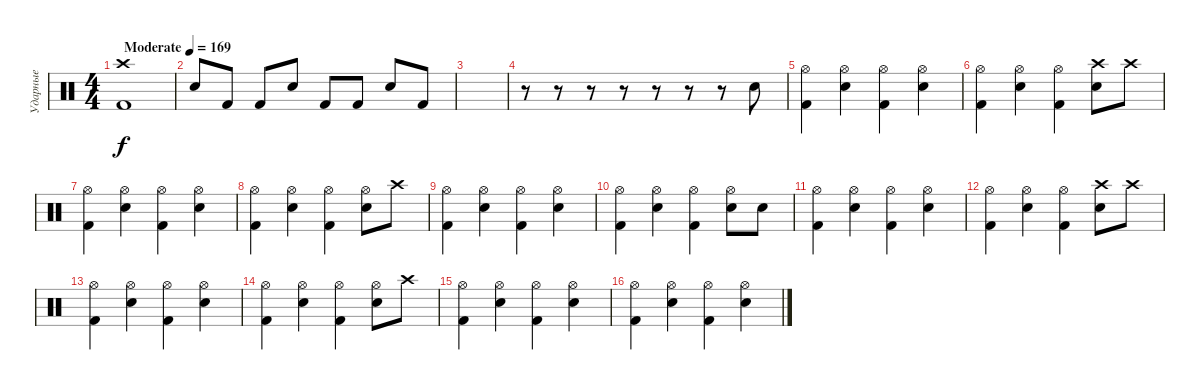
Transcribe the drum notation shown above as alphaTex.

\track ("Ударные" "Ударные") {instrument percussion}
\staff {score}
\articulation defaults
\ts (4 4)
\tempo (169 "Moderate")
\clef neutral
\ks c
("Kick (hit) 2" "Crash high (hit)").1{dy f} |
"Electric Snare (hit)".8 "Kick (hit) 2".8 "Kick (hit) 2".8 "Electric Snare (hit)".8 "Kick (hit) 2".8 "Kick (hit) 2".8 "Electric Snare (hit)".8 "Kick (hit) 2".8 |
|
r.8 r.8 r.8 r.8 r.8 r.8 r.8 "Electric Snare (hit)".8 |
("Kick (hit) 2" "Hi-Hat (open)").4 ("Electric Snare (hit)" "Hi-Hat (open)").4 ("Kick (hit) 2" "Hi-Hat (open)").4 ("Electric Snare (hit)" "Hi-Hat (open)").4 |
("Kick (hit) 2" "Hi-Hat (open)").4 ("Electric Snare (hit)" "Hi-Hat (open)").4 ("Kick (hit) 2" "Hi-Hat (open)").4 ("Electric Snare (hit)" "Crash high (hit)").8 "Crash high (hit)".8 |
("Kick (hit) 2" "Hi-Hat (open)").4 ("Electric Snare (hit)" "Hi-Hat (open)").4 ("Kick (hit) 2" "Hi-Hat (open)").4 ("Electric Snare (hit)" "Hi-Hat (open)").4 |
("Kick (hit) 2" "Hi-Hat (open)").4 ("Electric Snare (hit)" "Hi-Hat (open)").4 ("Kick (hit) 2" "Hi-Hat (open)").4 ("Electric Snare (hit)" "Hi-Hat (open)").8 "Crash high (hit)".8 |
("Kick (hit) 2" "Hi-Hat (open)").4 ("Electric Snare (hit)" "Hi-Hat (open)").4 ("Kick (hit) 2" "Hi-Hat (open)").4 ("Electric Snare (hit)" "Hi-Hat (open)").4 |
("Kick (hit) 2" "Hi-Hat (open)").4 ("Electric Snare (hit)" "Hi-Hat (open)").4 ("Kick (hit) 2" "Hi-Hat (open)").4 ("Electric Snare (hit)" "Hi-Hat (open)").8 "Electric Snare (hit)".8 |
("Kick (hit) 2" "Hi-Hat (open)").4 ("Electric Snare (hit)" "Hi-Hat (open)").4 ("Kick (hit) 2" "Hi-Hat (open)").4 ("Electric Snare (hit)" "Hi-Hat (open)").4 |
("Kick (hit) 2" "Hi-Hat (open)").4 ("Electric Snare (hit)" "Hi-Hat (open)").4 ("Kick (hit) 2" "Hi-Hat (open)").4 ("Electric Snare (hit)" "Crash high (hit)").8 "Crash high (hit)".8 |
("Kick (hit) 2" "Hi-Hat (open)").4 ("Electric Snare (hit)" "Hi-Hat (open)").4 ("Kick (hit) 2" "Hi-Hat (open)").4 ("Electric Snare (hit)" "Hi-Hat (open)").4 |
("Kick (hit) 2" "Hi-Hat (open)").4 ("Electric Snare (hit)" "Hi-Hat (open)").4 ("Kick (hit) 2" "Hi-Hat (open)").4 ("Electric Snare (hit)" "Hi-Hat (open)").8 "Crash high (hit)".8 |
("Kick (hit) 2" "Hi-Hat (open)").4 ("Electric Snare (hit)" "Hi-Hat (open)").4 ("Kick (hit) 2" "Hi-Hat (open)").4 ("Electric Snare (hit)" "Hi-Hat (open)").4 |
("Kick (hit) 2" "Hi-Hat (open)").4 ("Electric Snare (hit)" "Hi-Hat (open)").4 ("Kick (hit) 2" "Hi-Hat (open)").4 ("Electric Snare (hit)" "Hi-Hat (open)").4
